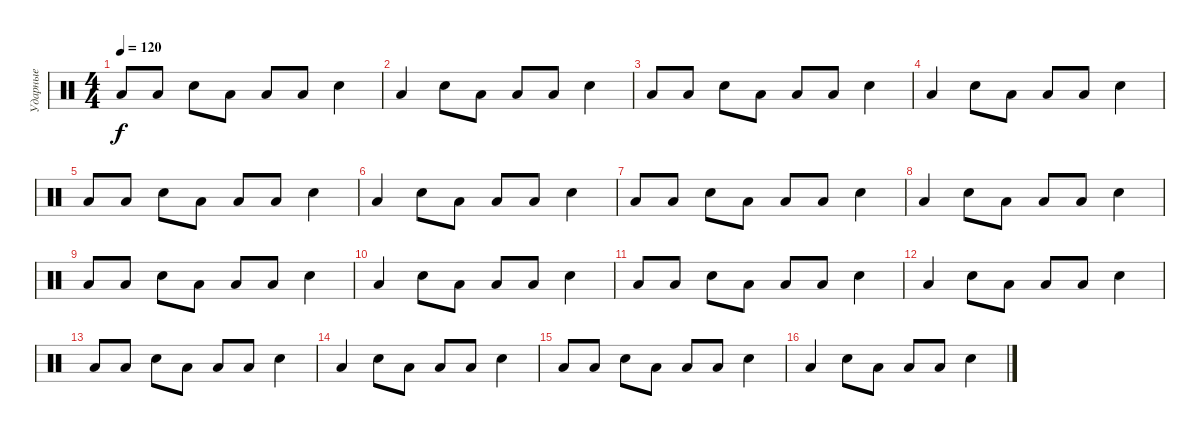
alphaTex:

\track ("Ударные" "Ударные") {instrument percussion}
\staff {score}
\articulation defaults
\ts (4 4)
\tempo 120
\clef neutral
\ks c "Low Floor Tom (hit)".8{dy f} "Low Floor Tom (hit)".8 "Hand Clap (hit)".8 "Low Floor Tom (hit)".8 "Low Floor Tom (hit)".8 "Low Floor Tom (hit)".8 "Hand Clap (hit)".4
|
"Low Floor Tom (hit)".4 "Hand Clap (hit)".8 "Low Floor Tom (hit)".8 "Low Floor Tom (hit)".8 "Low Floor Tom (hit)".8 "Hand Clap (hit)".4 |
"Low Floor Tom (hit)".8 "Low Floor Tom (hit)".8 "Hand Clap (hit)".8 "Low Floor Tom (hit)".8 "Low Floor Tom (hit)".8 "Low Floor Tom (hit)".8 "Hand Clap (hit)".4 |
\section ("" "")
"Low Floor Tom (hit)".4 "Hand Clap (hit)".8 "Low Floor Tom (hit)".8 "Low Floor Tom (hit)".8 "Low Floor Tom (hit)".8 "Hand Clap (hit)".4 |
"Low Floor Tom (hit)".8 "Low Floor Tom (hit)".8 "Hand Clap (hit)".8 "Low Floor Tom (hit)".8 "Low Floor Tom (hit)".8 "Low Floor Tom (hit)".8 "Hand Clap (hit)".4 |
"Low Floor Tom (hit)".4 "Hand Clap (hit)".8 "Low Floor Tom (hit)".8 "Low Floor Tom (hit)".8 "Low Floor Tom (hit)".8 "Hand Clap (hit)".4 |
"Low Floor Tom (hit)".8 "Low Floor Tom (hit)".8 "Hand Clap (hit)".8 "Low Floor Tom (hit)".8 "Low Floor Tom (hit)".8 "Low Floor Tom (hit)".8 "Hand Clap (hit)".4 |
"Low Floor Tom (hit)".4 "Hand Clap (hit)".8 "Low Floor Tom (hit)".8 "Low Floor Tom (hit)".8 "Low Floor Tom (hit)".8 "Hand Clap (hit)".4 |
"Low Floor Tom (hit)".8 "Low Floor Tom (hit)".8 "Hand Clap (hit)".8 "Low Floor Tom (hit)".8 "Low Floor Tom (hit)".8 "Low Floor Tom (hit)".8 "Hand Clap (hit)".4 |
"Low Floor Tom (hit)".4 "Hand Clap (hit)".8 "Low Floor Tom (hit)".8 "Low Floor Tom (hit)".8 "Low Floor Tom (hit)".8 "Hand Clap (hit)".4 |
"Low Floor Tom (hit)".8 "Low Floor Tom (hit)".8 "Hand Clap (hit)".8 "Low Floor Tom (hit)".8 "Low Floor Tom (hit)".8 "Low Floor Tom (hit)".8 "Hand Clap (hit)".4 |
"Low Floor Tom (hit)".4 "Hand Clap (hit)".8 "Low Floor Tom (hit)".8 "Low Floor Tom (hit)".8 "Low Floor Tom (hit)".8 "Hand Clap (hit)".4 |
"Low Floor Tom (hit)".8 "Low Floor Tom (hit)".8 "Hand Clap (hit)".8 "Low Floor Tom (hit)".8 "Low Floor Tom (hit)".8 "Low Floor Tom (hit)".8 "Hand Clap (hit)".4 |
"Low Floor Tom (hit)".4 "Hand Clap (hit)".8 "Low Floor Tom (hit)".8 "Low Floor Tom (hit)".8 "Low Floor Tom (hit)".8 "Hand Clap (hit)".4 |
"Low Floor Tom (hit)".8 "Low Floor Tom (hit)".8 "Hand Clap (hit)".8 "Low Floor Tom (hit)".8 "Low Floor Tom (hit)".8 "Low Floor Tom (hit)".8 "Hand Clap (hit)".4 |
"Low Floor Tom (hit)".4 "Hand Clap (hit)".8 "Low Floor Tom (hit)".8 "Low Floor Tom (hit)".8 "Low Floor Tom (hit)".8 "Hand Clap (hit)".4
